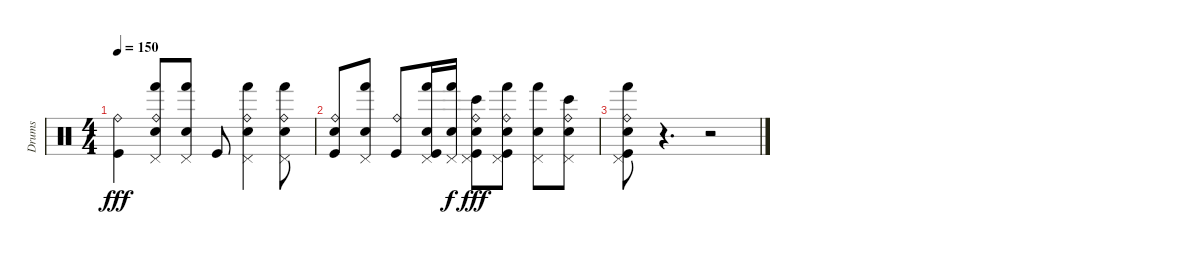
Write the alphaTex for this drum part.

\track ("Drums" "Drums") {instrument percussion}
\staff {score}
\articulation defaults
\ts (4 4)
\tempo 150
\clef neutral
\ks c
("Ride (bell)" "Kick (hit)").4{dy fff} ("Ride (bell)" "Pedal Hi-Hat (hit)" "Hand (hit)" "Electric Snare (hit)").8 ("Pedal Hi-Hat (hit)" "Hand (hit)" "Electric Snare (hit)").8 "Kick (hit)".8 ("Ride (bell)" "Pedal Hi-Hat (hit)" "Hand (hit)" "Electric Snare (hit)").4 ("Ride (bell)" "Pedal Hi-Hat (hit)" "Hand (hit)" "Electric Snare (hit)").8 |
("Ride (bell)" "Electric Snare (hit)" "Kick (hit)").8 ("Pedal Hi-Hat (hit)" "Hand (hit)" "Electric Snare (hit)").8 ("Ride (bell)" "Kick (hit)").8 ("Pedal Hi-Hat (hit)" "Hand (hit)" "Electric Snare (hit)" "Kick (hit)").16 ("Pedal Hi-Hat (hit)" "Hand (hit)" "Electric Snare (hit)").16{dy f} ("Ride (bell)" "Pedal Hi-Hat (hit)" "Bongo High (hit)" "Electric Snare (hit)" "Kick (hit)").8{dy fff} ("Ride (bell)" "Pedal Hi-Hat (hit)" "Hand (hit)" "Electric Snare (hit)" "Kick (hit)").8 ("Pedal Hi-Hat (hit)" "Hand (hit)" "Electric Snare (hit)").8 ("Ride (bell)" "Pedal Hi-Hat (hit)" "Bongo High (hit)" "Electric Snare (hit)").8 |
("Ride (bell)" "Pedal Hi-Hat (hit)" "Hand (hit)" "Electric Snare (hit)" "Kick (hit)").8 r.4{d} r.2
